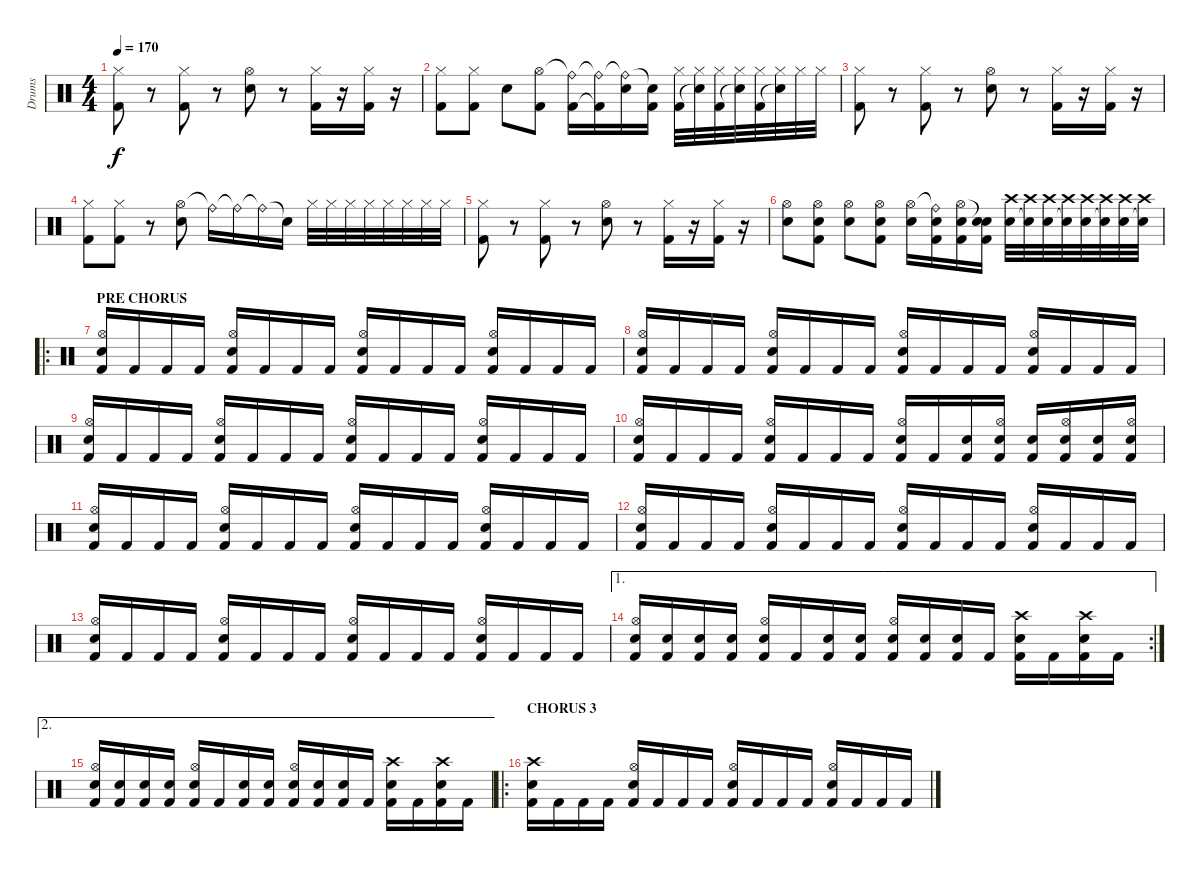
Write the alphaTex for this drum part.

\track ("Drums" "Drums") {instrument percussion}
\staff {score}
\articulation defaults
\ts (4 4)
\tempo 170
\clef neutral
\ks c
("Hi-Hat (closed)" "Kick (hit) 2").8{dy f} r.8 ("Hi-Hat (closed)" "Kick (hit) 2").8 r.8 ("Hi-Hat (open)" "Electric Snare (hit)").8 r.8 ("Hi-Hat (closed)" "Kick (hit) 2").16 r.16 ("Hi-Hat (closed)" "Kick (hit) 2").16 r.16 |
("Hi-Hat (closed)" "Kick (hit) 2").8 ("Hi-Hat (closed)" "Kick (hit) 2").8 "Electric Snare (hit)".8 ("Hi-Hat (open)" "Kick (hit) 2").8 ("Ride (bell)"{t} "Kick (hit) 2").16 ("Ride (bell)"{t} "Kick (hit) 2"{t}).16 ("Ride (bell)"{t} "Electric Snare (hit)").16 ("Snare (hit)"{t} "Kick (hit) 2").16 ("Hi-Hat (closed)" "Kick (hit) 2").32 ("Hi-Hat (closed)" "Snare (hit)"{t}).32 ("Hi-Hat (closed)" "Kick (hit) 2").32 ("Hi-Hat (closed)" "Snare (hit)"{t}).32 ("Hi-Hat (closed)" "Kick (hit) 2").32 ("Hi-Hat (closed)" "Snare (hit)"{t}).32 "Hi-Hat (closed)".32 "Hi-Hat (closed)".32 |
("Hi-Hat (closed)" "Kick (hit) 2").8 r.8 ("Hi-Hat (closed)" "Kick (hit) 2").8 r.8 ("Hi-Hat (open)" "Electric Snare (hit)").8 r.8 ("Hi-Hat (closed)" "Kick (hit) 2").16 r.16 ("Hi-Hat (closed)" "Kick (hit) 2").16 r.16 |
("Hi-Hat (closed)" "Kick (hit) 2").8 ("Hi-Hat (closed)" "Kick (hit) 2").8 r.8 ("Hi-Hat (open)" "Electric Snare (hit)").8 "Ride (bell)"{t}.16 "Ride (bell)"{t}.16 "Ride (bell)"{t}.16 "Snare (hit)"{t}.16 "Hi-Hat (closed)".32 "Hi-Hat (closed)".32 "Hi-Hat (closed)".32 "Hi-Hat (closed)".32 "Hi-Hat (closed)".32 "Hi-Hat (closed)".32 "Hi-Hat (closed)".32 "Hi-Hat (closed)".32 |
("Hi-Hat (closed)" "Kick (hit) 2").8 r.8 ("Hi-Hat (closed)" "Kick (hit) 2").8 r.8 ("Hi-Hat (open)" "Electric Snare (hit)").8 r.8 ("Hi-Hat (closed)" "Kick (hit) 2").16 r.16 ("Hi-Hat (closed)" "Kick (hit) 2").16 r.16 |
("Hi-Hat (open)" "Electric Snare (hit)").8 ("Hi-Hat (open)" "Kick (hit) 2" "Electric Snare (hit)").8 ("Hi-Hat (open)" "Electric Snare (hit)").8 ("Hi-Hat (open)" "Kick (hit) 2" "Electric Snare (hit)").8 ("Hi-Hat (open)" "Electric Snare (hit)").16 ("Ride (bell)"{t} "Kick (hit) 2" "Electric Snare (hit)").16 ("Hi-Hat (open)" "Kick (hit) 2" "Electric Snare (hit)").16 ("Snare (hit)"{t} "Kick (hit) 2" "Electric Snare (hit)").16 ("Crash high (hit)" "Electric Snare (hit)").32 ("Crash high (hit)" "Snare (hit)"{t}).32 ("Crash high (hit)" "Electric Snare (hit)").32 ("Crash high (hit)" "Snare (hit)"{t}).32 ("Crash high (hit)" "Electric Snare (hit)").32 ("Crash high (hit)" "Snare (hit)"{t}).32 ("Crash high (hit)" "Electric Snare (hit)").32 ("Crash high (hit)" "Snare (hit)"{t}).32 |
\ro
\section ("" "PRE CHORUS")
("Hi-Hat (open)" "Electric Snare (hit)" "Kick (hit) 2").16 "Kick (hit) 2".16 "Kick (hit) 2".16 "Kick (hit) 2".16 ("Hi-Hat (open)" "Electric Snare (hit)" "Kick (hit) 2").16 "Kick (hit) 2".16 "Kick (hit) 2".16 "Kick (hit) 2".16 ("Hi-Hat (open)" "Electric Snare (hit)" "Kick (hit) 2").16 "Kick (hit) 2".16 "Kick (hit) 2".16 "Kick (hit) 2".16 ("Hi-Hat (open)" "Electric Snare (hit)" "Kick (hit) 2").16 "Kick (hit) 2".16 "Kick (hit) 2".16 "Kick (hit) 2".16 |
("Hi-Hat (open)" "Electric Snare (hit)" "Kick (hit) 2").16 "Kick (hit) 2".16 "Kick (hit) 2".16 "Kick (hit) 2".16 ("Hi-Hat (open)" "Electric Snare (hit)" "Kick (hit) 2").16 "Kick (hit) 2".16 "Kick (hit) 2".16 "Kick (hit) 2".16 ("Hi-Hat (open)" "Electric Snare (hit)" "Kick (hit) 2").16 "Kick (hit) 2".16 "Kick (hit) 2".16 "Kick (hit) 2".16 ("Hi-Hat (open)" "Electric Snare (hit)" "Kick (hit) 2").16 "Kick (hit) 2".16 "Kick (hit) 2".16 "Kick (hit) 2".16 |
("Hi-Hat (open)" "Electric Snare (hit)" "Kick (hit) 2").16 "Kick (hit) 2".16 "Kick (hit) 2".16 "Kick (hit) 2".16 ("Hi-Hat (open)" "Electric Snare (hit)" "Kick (hit) 2").16 "Kick (hit) 2".16 "Kick (hit) 2".16 "Kick (hit) 2".16 ("Hi-Hat (open)" "Electric Snare (hit)" "Kick (hit) 2").16 "Kick (hit) 2".16 "Kick (hit) 2".16 "Kick (hit) 2".16 ("Hi-Hat (open)" "Electric Snare (hit)" "Kick (hit) 2").16 "Kick (hit) 2".16 "Kick (hit) 2".16 "Kick (hit) 2".16 |
("Hi-Hat (open)" "Electric Snare (hit)" "Kick (hit) 2").16 "Kick (hit) 2".16 "Kick (hit) 2".16 "Kick (hit) 2".16 ("Hi-Hat (open)" "Electric Snare (hit)" "Kick (hit) 2").16 "Kick (hit) 2".16 "Kick (hit) 2".16 "Kick (hit) 2".16 ("Hi-Hat (open)" "Electric Snare (hit)" "Kick (hit) 2").16 "Kick (hit) 2".16 ("Electric Snare (hit)" "Kick (hit) 2").16 ("Hi-Hat (open)" "Electric Snare (hit)" "Kick (hit) 2").16 ("Electric Snare (hit)" "Kick (hit) 2").16 ("Hi-Hat (open)" "Electric Snare (hit)" "Kick (hit) 2").16 ("Electric Snare (hit)" "Kick (hit) 2").16 ("Hi-Hat (open)" "Electric Snare (hit)" "Kick (hit) 2").16 |
("Hi-Hat (open)" "Electric Snare (hit)" "Kick (hit) 2").16 "Kick (hit) 2".16 "Kick (hit) 2".16 "Kick (hit) 2".16 ("Hi-Hat (open)" "Electric Snare (hit)" "Kick (hit) 2").16 "Kick (hit) 2".16 "Kick (hit) 2".16 "Kick (hit) 2".16 ("Hi-Hat (open)" "Electric Snare (hit)" "Kick (hit) 2").16 "Kick (hit) 2".16 "Kick (hit) 2".16 "Kick (hit) 2".16 ("Hi-Hat (open)" "Electric Snare (hit)" "Kick (hit) 2").16 "Kick (hit) 2".16 "Kick (hit) 2".16 "Kick (hit) 2".16 |
("Hi-Hat (open)" "Electric Snare (hit)" "Kick (hit) 2").16 "Kick (hit) 2".16 "Kick (hit) 2".16 "Kick (hit) 2".16 ("Hi-Hat (open)" "Electric Snare (hit)" "Kick (hit) 2").16 "Kick (hit) 2".16 "Kick (hit) 2".16 "Kick (hit) 2".16 ("Hi-Hat (open)" "Electric Snare (hit)" "Kick (hit) 2").16 "Kick (hit) 2".16 "Kick (hit) 2".16 "Kick (hit) 2".16 ("Hi-Hat (open)" "Electric Snare (hit)" "Kick (hit) 2").16 "Kick (hit) 2".16 "Kick (hit) 2".16 "Kick (hit) 2".16 |
("Hi-Hat (open)" "Electric Snare (hit)" "Kick (hit) 2").16 "Kick (hit) 2".16 "Kick (hit) 2".16 "Kick (hit) 2".16 ("Hi-Hat (open)" "Electric Snare (hit)" "Kick (hit) 2").16 "Kick (hit) 2".16 "Kick (hit) 2".16 "Kick (hit) 2".16 ("Hi-Hat (open)" "Electric Snare (hit)" "Kick (hit) 2").16 "Kick (hit) 2".16 "Kick (hit) 2".16 "Kick (hit) 2".16 ("Hi-Hat (open)" "Electric Snare (hit)" "Kick (hit) 2").16 "Kick (hit) 2".16 "Kick (hit) 2".16 "Kick (hit) 2".16 |
\ae 1
\rc 2
("Hi-Hat (open)" "Electric Snare (hit)" "Kick (hit) 2").16 ("Electric Snare (hit)" "Kick (hit) 2").16 ("Electric Snare (hit)" "Kick (hit) 2").16 ("Electric Snare (hit)" "Kick (hit) 2").16 ("Hi-Hat (open)" "Electric Snare (hit)" "Kick (hit) 2").16 "Kick (hit) 2".16 ("Electric Snare (hit)" "Kick (hit) 2").16 ("Electric Snare (hit)" "Kick (hit) 2").16 ("Hi-Hat (open)" "Electric Snare (hit)" "Kick (hit) 2").16 ("Electric Snare (hit)" "Kick (hit) 2").16 ("Electric Snare (hit)" "Kick (hit) 2").16 "Kick (hit) 2".16 ("Crash high (hit)" "Electric Snare (hit)" "Kick (hit) 2").16 "Kick (hit) 2".16 ("Crash high (hit)" "Electric Snare (hit)" "Kick (hit) 2").16 "Kick (hit) 2".16 |
\ae 2
("Hi-Hat (open)" "Electric Snare (hit)" "Kick (hit) 2").16 ("Electric Snare (hit)" "Kick (hit) 2").16 ("Electric Snare (hit)" "Kick (hit) 2").16 ("Electric Snare (hit)" "Kick (hit) 2").16 ("Hi-Hat (open)" "Electric Snare (hit)" "Kick (hit) 2").16 "Kick (hit) 2".16 ("Electric Snare (hit)" "Kick (hit) 2").16 ("Electric Snare (hit)" "Kick (hit) 2").16 ("Hi-Hat (open)" "Electric Snare (hit)" "Kick (hit) 2").16 ("Electric Snare (hit)" "Kick (hit) 2").16 ("Electric Snare (hit)" "Kick (hit) 2").16 "Kick (hit) 2".16 ("Crash high (hit)" "Electric Snare (hit)" "Kick (hit) 2").16 "Kick (hit) 2".16 ("Crash high (hit)" "Electric Snare (hit)" "Kick (hit) 2").16 "Kick (hit) 2".16 |
\ro
\section ("" "CHORUS 3")
("Crash high (hit)" "Electric Snare (hit)" "Kick (hit) 2").16 "Kick (hit) 2".16 "Kick (hit) 2".16 "Kick (hit) 2".16 ("Hi-Hat (open)" "Electric Snare (hit)" "Kick (hit) 2").16 "Kick (hit) 2".16 "Kick (hit) 2".16 "Kick (hit) 2".16 ("Hi-Hat (open)" "Electric Snare (hit)" "Kick (hit) 2").16 "Kick (hit) 2".16 "Kick (hit) 2".16 "Kick (hit) 2".16 ("Hi-Hat (open)" "Electric Snare (hit)" "Kick (hit) 2").16 "Kick (hit) 2".16 "Kick (hit) 2".16 "Kick (hit) 2".16
